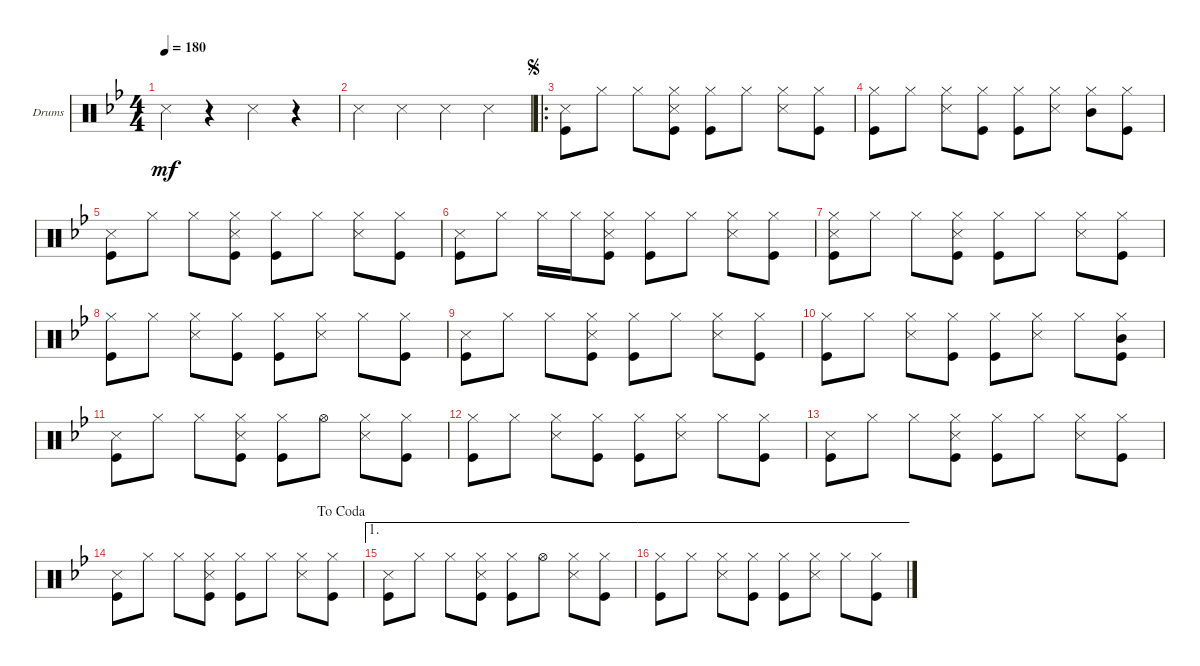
\bracketExtendMode groupsimilarinstruments
\firstSystemTrackNameOrientation horizontal
\otherSystemsTrackNameOrientation horizontal
\track ("Drums   (BB)" "Drums") {instrument percussion}
\staff {score}
\articulation defaults
\ts (4 4)
\tempo 180
\clef neutral
\ks bb "Snare (side stick) 3".4{dy mf}
r.4 "Snare (side stick) 3".4 r.4 |
"Snare (side stick) 3".4 "Snare (side stick) 3".4 "Snare (side stick) 3".4 "Snare (side stick) 3".4 |
\ro
\jump segno
("Kick (hit)" "Snare (side stick) 3").8 "Hi-Hat (closed)".8 "Hi-Hat (closed)".8 ("Kick (hit)" "Hi-Hat (closed)" "Snare (side stick) 3").8 ("Kick (hit)" "Hi-Hat (closed)").8 "Hi-Hat (closed)".8 ("Hi-Hat (closed)" "Snare (side stick) 3").8 ("Kick (hit)" "Hi-Hat (closed)").8 |
("Kick (hit)" "Hi-Hat (closed)").8 "Hi-Hat (closed)".8 ("Hi-Hat (closed)" "Snare (side stick) 3").8 ("Kick (hit)" "Hi-Hat (closed)").8 ("Kick (hit)" "Hi-Hat (closed)").8 ("Hi-Hat (closed)" "Snare (side stick) 3").8 ("Hi-Hat (closed)" "Mid Tom (hit)").8 ("Kick (hit)" "Hi-Hat (closed)").8 |
("Kick (hit)" "Snare (side stick) 3").8 "Hi-Hat (closed)".8 "Hi-Hat (closed)".8 ("Kick (hit)" "Hi-Hat (closed)" "Snare (side stick) 3").8 ("Kick (hit)" "Hi-Hat (closed)").8 "Hi-Hat (closed)".8 ("Hi-Hat (closed)" "Snare (side stick) 3").8 ("Kick (hit)" "Hi-Hat (closed)").8 |
("Kick (hit)" "Snare (side stick) 3").8 "Hi-Hat (closed)".8 "Hi-Hat (closed)".16 "Hi-Hat (closed)".16 ("Kick (hit)" "Hi-Hat (closed)" "Snare (side stick) 3").8 ("Kick (hit)" "Hi-Hat (closed)").8 "Hi-Hat (closed)".8 ("Hi-Hat (closed)" "Snare (side stick) 3").8 ("Kick (hit)" "Hi-Hat (closed)").8 |
("Kick (hit)" "Hi-Hat (closed)" "Snare (side stick) 3").8 "Hi-Hat (closed)".8 "Hi-Hat (closed)".8 ("Kick (hit)" "Hi-Hat (closed)" "Snare (side stick) 3").8 ("Kick (hit)" "Hi-Hat (closed)").8 "Hi-Hat (closed)".8 ("Hi-Hat (closed)" "Snare (side stick) 3").8 ("Kick (hit)" "Hi-Hat (closed)").8 |
("Kick (hit)" "Hi-Hat (closed)").8 "Hi-Hat (closed)".8 ("Hi-Hat (closed)" "Snare (side stick) 3").8 ("Kick (hit)" "Hi-Hat (closed)").8 ("Kick (hit)" "Hi-Hat (closed)").8 ("Hi-Hat (closed)" "Snare (side stick) 3").8 "Hi-Hat (closed)".8 ("Kick (hit)" "Hi-Hat (closed)").8 |
("Kick (hit)" "Snare (side stick) 3").8 "Hi-Hat (closed)".8 "Hi-Hat (closed)".8 ("Kick (hit)" "Hi-Hat (closed)" "Snare (side stick) 3").8 ("Kick (hit)" "Hi-Hat (closed)").8 "Hi-Hat (closed)".8 ("Hi-Hat (closed)" "Snare (side stick) 3").8 ("Kick (hit)" "Hi-Hat (closed)").8 |
("Kick (hit)" "Hi-Hat (closed)").8 "Hi-Hat (closed)".8 ("Hi-Hat (closed)" "Snare (side stick) 3").8 ("Kick (hit)" "Hi-Hat (closed)").8 ("Kick (hit)" "Hi-Hat (closed)").8 ("Hi-Hat (closed)" "Snare (side stick) 3").8 "Hi-Hat (closed)".8 ("Kick (hit)" "Hi-Hat (closed)" "Mid Tom (hit)").8 |
("Kick (hit)" "Snare (side stick) 3").8 "Hi-Hat (closed)".8 "Hi-Hat (closed)".8 ("Kick (hit)" "Hi-Hat (closed)" "Snare (side stick) 3").8 ("Kick (hit)" "Hi-Hat (closed)").8 "Hi-Hat (open)".8 ("Hi-Hat (closed)" "Snare (side stick) 3").8 ("Kick (hit)" "Hi-Hat (closed)").8 |
("Kick (hit)" "Hi-Hat (closed)").8 "Hi-Hat (closed)".8 ("Hi-Hat (closed)" "Snare (side stick) 3").8 ("Kick (hit)" "Hi-Hat (closed)").8 ("Kick (hit)" "Hi-Hat (closed)").8 ("Hi-Hat (closed)" "Snare (side stick) 3").8 "Hi-Hat (closed)".8 ("Kick (hit)" "Hi-Hat (closed)").8 |
("Kick (hit)" "Snare (side stick) 3").8 "Hi-Hat (closed)".8 "Hi-Hat (closed)".8 ("Kick (hit)" "Hi-Hat (closed)" "Snare (side stick) 3").8 ("Kick (hit)" "Hi-Hat (closed)").8 "Hi-Hat (closed)".8 ("Hi-Hat (closed)" "Snare (side stick) 3").8 ("Kick (hit)" "Hi-Hat (closed)").8 |
\jump dacoda
("Kick (hit)" "Snare (side stick) 3").8 "Hi-Hat (closed)".8 "Hi-Hat (closed)".8 ("Kick (hit)" "Hi-Hat (closed)" "Snare (side stick) 3").8 ("Kick (hit)" "Hi-Hat (closed)").8 "Hi-Hat (closed)".8 ("Hi-Hat (closed)" "Snare (side stick) 3").8 ("Kick (hit)" "Hi-Hat (closed)").8 |
\ae 1
("Kick (hit)" "Snare (side stick) 3").8 "Hi-Hat (closed)".8 "Hi-Hat (closed)".8 ("Kick (hit)" "Hi-Hat (closed)" "Snare (side stick) 3").8 ("Kick (hit)" "Hi-Hat (closed)").8 "Hi-Hat (open)".8 ("Hi-Hat (closed)" "Snare (side stick) 3").8 ("Kick (hit)" "Hi-Hat (closed)").8 |
\ae 1
("Kick (hit)" "Hi-Hat (closed)").8 "Hi-Hat (closed)".8 ("Hi-Hat (closed)" "Snare (side stick) 3").8 ("Kick (hit)" "Hi-Hat (closed)").8 ("Kick (hit)" "Hi-Hat (closed)").8 ("Hi-Hat (closed)" "Snare (side stick) 3").8 "Hi-Hat (closed)".8 ("Kick (hit)" "Hi-Hat (closed)").8
